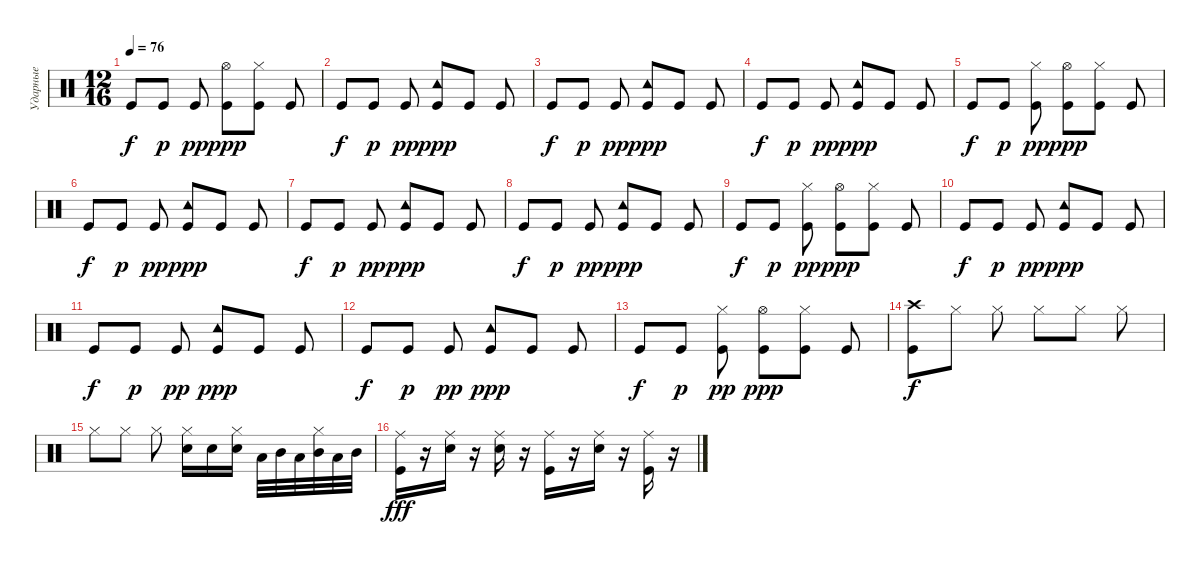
\track ("Ударные" "Ударные") {instrument percussion}
\staff {score}
\articulation defaults
\ts (12 16)
\tempo 76
\clef neutral
\ks c "Kick (hit)".8{dy f} "Kick (hit)".8{dy p} "Kick (hit)".8{dy pp}
("Hi-Hat (open)" "Kick (hit)").8{dy ppp} ("Hi-Hat (closed)" "Kick (hit)").8 "Kick (hit)".8 |
"Kick (hit)".8{dy f} "Kick (hit)".8{dy p} "Kick (hit)".8{dy pp} ("Tambourine (hit)" "Kick (hit)").8{dy ppp} "Kick (hit)".8 "Kick (hit)".8 |
"Kick (hit)".8{dy f} "Kick (hit)".8{dy p} "Kick (hit)".8{dy pp} ("Tambourine (hit)" "Kick (hit)").8{dy ppp} "Kick (hit)".8 "Kick (hit)".8 |
"Kick (hit)".8{dy f} "Kick (hit)".8{dy p} "Kick (hit)".8{dy pp} ("Tambourine (hit)" "Kick (hit)").8{dy ppp} "Kick (hit)".8 "Kick (hit)".8 |
"Kick (hit)".8{dy f} "Kick (hit)".8{dy p} ("Hi-Hat (closed)" "Kick (hit)").8{dy pp} ("Hi-Hat (open)" "Kick (hit)").8{dy ppp} ("Hi-Hat (closed)" "Kick (hit)").8 "Kick (hit)".8 |
"Kick (hit)".8{dy f} "Kick (hit)".8{dy p} "Kick (hit)".8{dy pp} ("Tambourine (hit)" "Kick (hit)").8{dy ppp} "Kick (hit)".8 "Kick (hit)".8 |
"Kick (hit)".8{dy f} "Kick (hit)".8{dy p} "Kick (hit)".8{dy pp} ("Tambourine (hit)" "Kick (hit)").8{dy ppp} "Kick (hit)".8 "Kick (hit)".8 |
"Kick (hit)".8{dy f} "Kick (hit)".8{dy p} "Kick (hit)".8{dy pp} ("Tambourine (hit)" "Kick (hit)").8{dy ppp} "Kick (hit)".8 "Kick (hit)".8 |
"Kick (hit)".8{dy f} "Kick (hit)".8{dy p} ("Hi-Hat (closed)" "Kick (hit)").8{dy pp} ("Hi-Hat (open)" "Kick (hit)").8{dy ppp} ("Hi-Hat (closed)" "Kick (hit)").8 "Kick (hit)".8 |
"Kick (hit)".8{dy f} "Kick (hit)".8{dy p} "Kick (hit)".8{dy pp} ("Tambourine (hit)" "Kick (hit)").8{dy ppp} "Kick (hit)".8 "Kick (hit)".8 |
"Kick (hit)".8{dy f} "Kick (hit)".8{dy p} "Kick (hit)".8{dy pp} ("Tambourine (hit)" "Kick (hit)").8{dy ppp} "Kick (hit)".8 "Kick (hit)".8 |
"Kick (hit)".8{dy f} "Kick (hit)".8{dy p} "Kick (hit)".8{dy pp} ("Tambourine (hit)" "Kick (hit)").8{dy ppp} "Kick (hit)".8 "Kick (hit)".8 |
"Kick (hit)".8{dy f} "Kick (hit)".8{dy p} ("Hi-Hat (closed)" "Kick (hit)").8{dy pp} ("Hi-Hat (open)" "Kick (hit)").8{dy ppp} ("Hi-Hat (closed)" "Kick (hit)").8 "Kick (hit)".8 |
("Kick (hit)" "Crash high (hit)").8{dy f} "Hi-Hat (closed)".8 "Hi-Hat (closed)".8 "Hi-Hat (closed)".8 "Hi-Hat (closed)".8 "Hi-Hat (closed)".8 |
"Hi-Hat (closed)".8 "Hi-Hat (closed)".8 "Hi-Hat (closed)".8 ("Hi-Hat (closed)" "Electric Snare (hit)").16 "Electric Snare (hit)".16 ("Hi-Hat (closed)" "Electric Snare (hit)").16 "Low Tom (hit)".32 "Mid Tom (hit)".32 "Low Tom (hit)".32 ("Hi-Hat (closed)" "Mid Tom (hit)").32 "Low Tom (hit)".32 "Mid Tom (hit)".32 |
("Kick (hit)" "Ride (middle)").16{dy fff} r.16 ("Snare (hit) 2" "Ride (middle)").16 r.16 ("Snare (hit) 2" "Ride (middle)").16 r.16 ("Kick (hit)" "Ride (middle)").16 r.16 ("Snare (hit) 2" "Ride (middle)").16 r.16 ("Kick (hit)" "Ride (middle)").16 r.16
